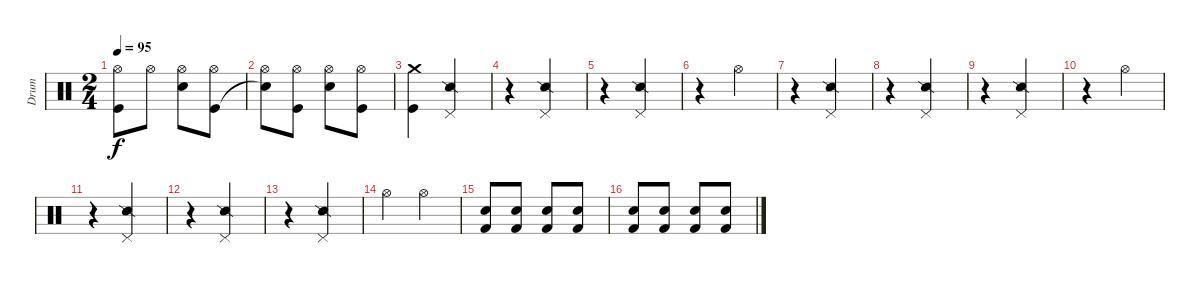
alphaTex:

\track ("Drum" "Drum") {instrument percussion}
\staff {score}
\articulation defaults
\ts (2 4)
\tempo 95
\clef neutral
\ks c
("Kick (hit)" "Hi-Hat (open)").8{dy f} "Hi-Hat (open)".8 ("Electric Snare (hit)" "Hi-Hat (open)").8 ("Kick (hit)" "Hi-Hat (open)").8 |
("Snare (hit)"{t} "Hi-Hat (open)").8 ("Kick (hit)" "Hi-Hat (open)").8 ("Electric Snare (hit)" "Hi-Hat (open)").8 ("Kick (hit)" "Hi-Hat (open)").8 |
("Kick (hit)" "Crash medium (hit)").4 ("Snare (side stick) 2" "Pedal Hi-Hat (hit)").4 |
r.4 ("Snare (side stick) 2" "Pedal Hi-Hat (hit)").4 |
r.4 ("Snare (side stick) 2" "Pedal Hi-Hat (hit)").4 |
r.4 "Hi-Hat (open)".4 |
r.4 ("Snare (side stick) 2" "Pedal Hi-Hat (hit)").4 |
r.4 ("Snare (side stick) 2" "Pedal Hi-Hat (hit)").4 |
r.4 ("Snare (side stick) 2" "Pedal Hi-Hat (hit)").4 |
r.4 "Hi-Hat (open)".4 |
r.4 ("Snare (side stick) 2" "Pedal Hi-Hat (hit)").4 |
r.4 ("Snare (side stick) 2" "Pedal Hi-Hat (hit)").4 |
r.4 ("Snare (side stick) 2" "Pedal Hi-Hat (hit)").4 |
"Hi-Hat (open)".4 "Hi-Hat (open)".4 |
("Electric Snare (hit)" "Kick (hit) 2").8 ("Electric Snare (hit)" "Kick (hit) 2").8 ("Electric Snare (hit)" "Kick (hit) 2").8 ("Electric Snare (hit)" "Kick (hit) 2").8 |
("Electric Snare (hit)" "Kick (hit) 2").8 ("Electric Snare (hit)" "Kick (hit) 2").8 ("Electric Snare (hit)" "Kick (hit) 2").8 ("Electric Snare (hit)" "Kick (hit) 2").8
